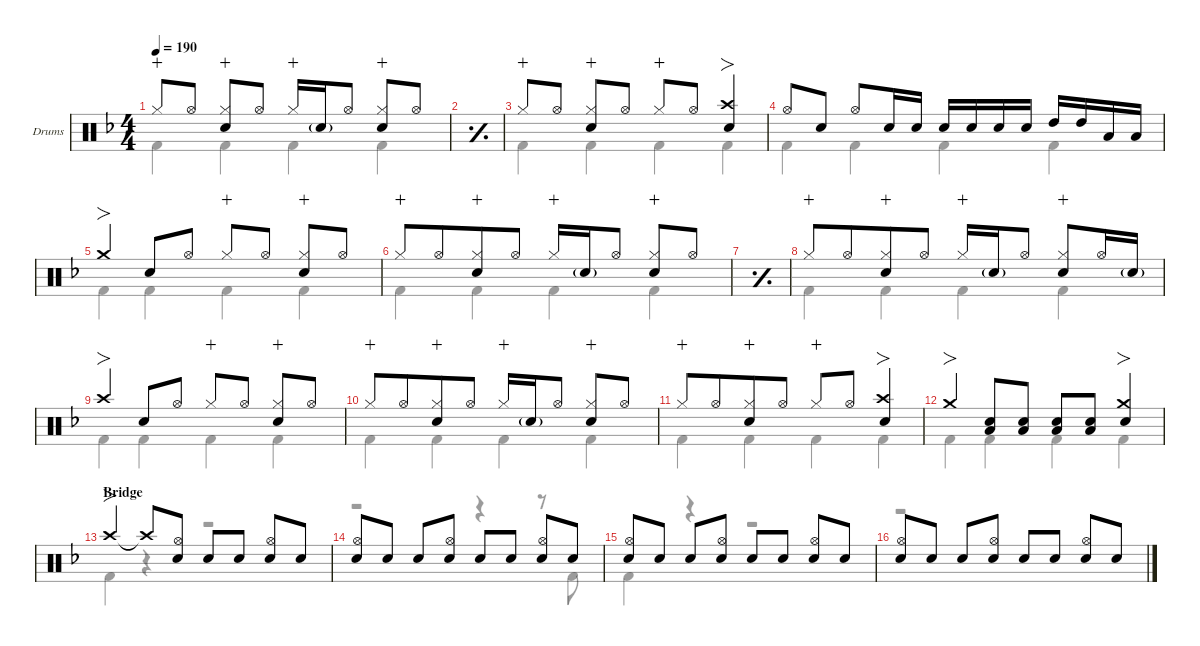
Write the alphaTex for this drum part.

\defaultSystemsLayout 4
\hideDynamics
\bracketExtendMode nobrackets
\firstSystemTrackNameOrientation horizontal
\track ("Drums" "Drums") {defaultSystemsLayout 4 instrument percussion}
\staff {score}
\articulation defaults
\voice
\ts (4 4)
\tempo 190
\clef neutral
\scale
0.266618
\ks dminor "Hi-Hat (closed)"{acc forcenatural}.8{dy mp wahc beam Up} "Hi-Hat (open)"{acc forcenatural}.8{dy f beam Up}
("Hi-Hat (closed)"{acc forcenatural} "Snare (hit) 2"{acc forcenatural}).8{wahc beam Up} "Hi-Hat (open)"{acc forcenatural}.8{beam Up} "Hi-Hat (closed)"{acc forcenatural}.16{dy mp wahc beam Up} "Snare (hit) 2"{g acc forcenatural}.16{dy mf beam Up} "Hi-Hat (open)"{acc forcenatural}.8{dy f beam Up beam split} ("Hi-Hat (closed)"{acc forcenatural} "Snare (hit) 2"{acc forcenatural}).8{wahc beam Up} "Hi-Hat (open)"{acc forcenatural}.8{beam Up} |
\simile simple
\scale
0.244461 |
\simile none
\scale
0.24446 "Hi-Hat (closed)"{acc forcenatural}.8{dy mp wahc beam Up} "Hi-Hat (open)"{acc forcenatural}.8{dy f beam Up} ("Hi-Hat (closed)"{acc forcenatural} "Snare (hit) 2"{acc forcenatural}).8{wahc beam Up} "Hi-Hat (open)"{acc forcenatural}.8{beam Up} "Hi-Hat (closed)"{acc forcenatural}.8{dy mp wahc beam Up} "Hi-Hat (open)"{acc forcenatural}.8{dy f beam Up} ("Crash high (hit)"{acc forcenatural} "Snare (hit) 2"{acc forcenatural}).4{fo beam Up} |
\scale
0.244461 "Hi-Hat (open)"{acc forcenatural}.8{beam Up} "Snare (hit) 2"{acc forcenatural}.8{beam Up beam split} "Hi-Hat (open)"{acc forcenatural}.8{beam Up beam merge} "Snare (hit) 2"{acc forcenatural}.16{dy mf beam Up} "Snare (hit) 2"{acc forcenatural}.16{dy mp beam Up} "Snare (hit) 2"{acc forcenatural}.16{dy f beam Up} "Snare (hit) 2"{acc forcenatural}.16{dy mp beam Up} "Snare (hit) 2"{acc forcenatural}.16{dy mf beam Up} "Snare (hit) 2"{acc forcenatural}.16{dy mp beam Up beam split} "High Tom (hit)"{acc forcenatural}.16{dy f beam Up} "High Tom (hit)"{acc forcenatural}.16{beam Up} "Low Tom (hit)"{acc forcenatural}.16{beam Up} "Low Tom (hit)"{acc forcenatural}.16{beam Up} |
\scale
0.266618 "Crash medium (hit)"{acc forcenatural}.4{fo beam Up} "Snare (hit) 2"{acc forcenatural}.8{beam Up} "Hi-Hat (open)"{acc forcenatural}.8{beam Up} "Hi-Hat (closed)"{acc forcenatural}.8{dy mp wahc beam Up} "Hi-Hat (open)"{acc forcenatural}.8{dy f beam Up} ("Hi-Hat (closed)"{acc forcenatural} "Snare (hit) 2"{acc forcenatural}).8{wahc beam Up} "Hi-Hat (open)"{acc forcenatural}.8{beam Up} |
\scale
0.244461 "Hi-Hat (closed)"{acc forcenatural}.8{dy mp wahc beam Up beam merge} "Hi-Hat (open)"{acc forcenatural}.8{dy f beam Up beam merge} ("Hi-Hat (closed)"{acc forcenatural} "Snare (hit) 2"{acc forcenatural}).8{wahc beam Up beam merge} "Hi-Hat (open)"{acc forcenatural}.8{beam Up} "Hi-Hat (closed)"{acc forcenatural}.16{dy mp wahc beam Up} "Snare (hit) 2"{g acc forcenatural}.16{dy mf beam Up} "Hi-Hat (open)"{acc forcenatural}.8{dy f beam Up beam split} ("Hi-Hat (closed)"{acc forcenatural} "Snare (hit) 2"{acc forcenatural}).8{wahc beam Up} "Hi-Hat (open)"{acc forcenatural}.8{beam Up} |
\simile simple
\scale
0.24446 |
\simile none
\scale
0.244461 "Hi-Hat (closed)"{acc forcenatural}.8{dy mp wahc beam Up beam merge} "Hi-Hat (open)"{acc forcenatural}.8{dy f beam Up beam merge} ("Hi-Hat (closed)"{acc forcenatural} "Snare (hit) 2"{acc forcenatural}).8{wahc beam Up beam merge} "Hi-Hat (open)"{acc forcenatural}.8{beam Up} "Hi-Hat (closed)"{acc forcenatural}.16{dy mp wahc beam Up} "Snare (hit) 2"{g acc forcenatural}.16{dy mf beam Up} "Hi-Hat (open)"{acc forcenatural}.8{dy f beam Up beam split} ("Hi-Hat (closed)"{acc forcenatural} "Snare (hit) 2"{acc forcenatural}).8{wahc beam Up} "Hi-Hat (open)"{acc forcenatural}.16{beam Up} "Snare (hit) 2"{g acc forcenatural}.16{dy mf beam Up} |
\scale
0.266618 "Crash high (hit)"{acc forcenatural}.4{fo dy f beam Up} "Snare (hit) 2"{acc forcenatural}.8{beam Up} "Hi-Hat (open)"{acc forcenatural}.8{beam Up} "Hi-Hat (closed)"{acc forcenatural}.8{dy mp wahc beam Up} "Hi-Hat (open)"{acc forcenatural}.8{dy f beam Up} ("Hi-Hat (closed)"{acc forcenatural} "Snare (hit) 2"{acc forcenatural}).8{wahc beam Up} "Hi-Hat (open)"{acc forcenatural}.8{beam Up} |
\scale
0.24446 "Hi-Hat (closed)"{acc forcenatural}.8{dy mp wahc beam Up beam merge} "Hi-Hat (open)"{acc forcenatural}.8{dy f beam Up beam merge} ("Hi-Hat (closed)"{acc forcenatural} "Snare (hit) 2"{acc forcenatural}).8{wahc beam Up beam merge} "Hi-Hat (open)"{acc forcenatural}.8{beam Up} "Hi-Hat (closed)"{acc forcenatural}.16{dy mp wahc beam Up} "Snare (hit) 2"{g acc forcenatural}.16{dy mf beam Up} "Hi-Hat (open)"{acc forcenatural}.8{dy f beam Up beam split} ("Hi-Hat (closed)"{acc forcenatural} "Snare (hit) 2"{acc forcenatural}).8{wahc beam Up} "Hi-Hat (open)"{acc forcenatural}.8{beam Up} |
\scale
0.24446 "Hi-Hat (closed)"{acc forcenatural}.8{dy mp wahc beam Up beam merge} "Hi-Hat (open)"{acc forcenatural}.8{dy f beam Up beam merge} ("Hi-Hat (closed)"{acc forcenatural} "Snare (hit) 2"{acc forcenatural}).8{wahc beam Up beam merge} "Hi-Hat (open)"{acc forcenatural}.8{beam Up} "Hi-Hat (closed)"{acc forcenatural}.8{dy mp wahc beam Up beam merge} "Hi-Hat (open)"{acc forcenatural}.8{dy f beam Up beam merge} ("Crash high (hit)"{acc forcenatural} "Snare (hit) 2"{acc forcenatural}).4{fo beam Up beam merge} |
\scale
0.244461 "Crash medium (hit)"{acc forcenatural}.4{fo beam Up beam merge} ("Snare (hit) 2"{acc forcenatural} "Low Tom (hit)"{acc forcenatural}).8{beam Up beam merge} ("Snare (hit) 2"{acc forcenatural} "Low Tom (hit)"{acc forcenatural}).8{beam Up} ("Snare (hit) 2"{acc forcenatural} "Low Tom (hit)"{acc forcenatural}).8{beam Up} ("Snare (hit) 2"{acc forcenatural} "Low Tom (hit)"{acc forcenatural}).8{beam Up} ("Snare (hit) 2"{acc forcenatural} "Crash medium (hit)"{acc forcenatural}).4{fo beam Up} |
\section ("" "Bridge")
\scale
0.266618 "Crash high (hit)"{acc forcenatural}.4{fo beam Up} "Crash high (hit)"{t acc forcenatural}.8{beam Up} ("Hi-Hat (open)"{acc forcenatural} "Snare (hit) 2"{acc forcenatural}).8{beam Up} "Snare (hit) 2"{acc forcenatural}.8{dy mf beam Up} "Snare (hit) 2"{acc forcenatural}.8{beam Up} ("Snare (hit) 2"{acc forcenatural} "Hi-Hat (open)"{acc forcenatural}).8{dy f beam Up} "Snare (hit) 2"{acc forcenatural}.8{dy mf beam Up} |
\scale
0.24446 ("Snare (hit) 2"{acc forcenatural} "Hi-Hat (open)"{acc forcenatural}).8{dy f beam Up} "Snare (hit) 2"{acc forcenatural}.8{dy mf beam Up} "Snare (hit) 2"{acc forcenatural}.8{beam Up} ("Hi-Hat (open)"{acc forcenatural} "Snare (hit) 2"{acc forcenatural}).8{dy f beam Up} "Snare (hit) 2"{acc forcenatural}.8{dy mf beam Up} "Snare (hit) 2"{acc forcenatural}.8{beam Up} ("Hi-Hat (open)"{acc forcenatural} "Snare (hit) 2"{acc forcenatural}).8{dy f beam Up} "Snare (hit) 2"{acc forcenatural}.8{dy mf beam Up} |
\scale
0.24446 ("Snare (hit) 2"{acc forcenatural} "Hi-Hat (open)"{acc forcenatural}).8{dy f beam Up} "Snare (hit) 2"{acc forcenatural}.8{dy mf beam Up} "Snare (hit) 2"{acc forcenatural}.8{beam Up} ("Hi-Hat (open)"{acc forcenatural} "Snare (hit) 2"{acc forcenatural}).8{dy f beam Up} "Snare (hit) 2"{acc forcenatural}.8{dy mf beam Up} "Snare (hit) 2"{acc forcenatural}.8{beam Up} ("Hi-Hat (open)"{acc forcenatural} "Snare (hit) 2"{acc forcenatural}).8{dy f beam Up} "Snare (hit) 2"{acc forcenatural}.8{dy mf beam Up} |
\scale
0.244461 ("Snare (hit) 2"{acc forcenatural} "Hi-Hat (open)"{acc forcenatural}).8{dy f beam Up} "Snare (hit) 2"{acc forcenatural}.8{dy mf beam Up} "Snare (hit) 2"{acc forcenatural}.8{beam Up} ("Hi-Hat (open)"{acc forcenatural} "Snare (hit) 2"{acc forcenatural}).8{dy f beam Up} "Snare (hit) 2"{acc forcenatural}.8{dy mf beam Up} "Snare (hit) 2"{acc forcenatural}.8{beam Up} ("Hi-Hat (open)"{acc forcenatural} "Snare (hit) 2"{acc forcenatural}).8{dy f beam Up} "Snare (hit) 2"{acc forcenatural}.8{dy mf beam Up}
\voice
\clef neutral
\ottava regular
\simile none
\scale
0.266618
\ks dminor "Kick (hit) 2"{acc forcenatural}.4{dy f beam Down} "Kick (hit) 2"{acc forcenatural}.4{beam Down} "Kick (hit) 2"{acc forcenatural}.4{beam Down} "Kick (hit) 2"{acc forcenatural}.4{beam Down}
|
\simile simple
\scale
0.244461 |
\simile none
\scale
0.24446 "Kick (hit) 2"{acc forcenatural}.4{beam Down} "Kick (hit) 2"{acc forcenatural}.4{beam Down} "Kick (hit) 2"{acc forcenatural}.4{beam Down} "Kick (hit) 2"{acc forcenatural}.4{beam Down} |
\scale
0.244461 "Kick (hit) 2"{acc forcenatural}.4{beam Down} "Kick (hit) 2"{acc forcenatural}.4{beam Down} "Kick (hit) 2"{acc forcenatural}.4{beam Down} "Kick (hit) 2"{acc forcenatural}.4{beam Down} |
\scale
0.266618 "Kick (hit) 2"{acc forcenatural}.4{beam Down} "Kick (hit) 2"{acc forcenatural}.4{beam Down} "Kick (hit) 2"{acc forcenatural}.4{beam Down} "Kick (hit) 2"{acc forcenatural}.4{beam Down} |
\scale
0.244461 "Kick (hit) 2"{acc forcenatural}.4{beam Down} "Kick (hit) 2"{acc forcenatural}.4{beam Down} "Kick (hit) 2"{acc forcenatural}.4{beam Down} "Kick (hit) 2"{acc forcenatural}.4{beam Down} |
\simile simple
\scale
0.24446 |
\simile none
\scale
0.244461 "Kick (hit) 2"{acc forcenatural}.4{beam Down} "Kick (hit) 2"{acc forcenatural}.4{beam Down} "Kick (hit) 2"{acc forcenatural}.4{beam Down} "Kick (hit) 2"{acc forcenatural}.4{beam Down} |
\scale
0.266618 "Kick (hit) 2"{acc forcenatural}.4{beam Down} "Kick (hit) 2"{acc forcenatural}.4{beam Down} "Kick (hit) 2"{acc forcenatural}.4{beam Down} "Kick (hit) 2"{acc forcenatural}.4{beam Down} |
\scale
0.24446 "Kick (hit) 2"{acc forcenatural}.4{beam Down} "Kick (hit) 2"{acc forcenatural}.4{beam Down} "Kick (hit) 2"{acc forcenatural}.4{beam Down} "Kick (hit) 2"{acc forcenatural}.4{beam Down} |
\scale
0.24446 "Kick (hit) 2"{acc forcenatural}.4{beam Down} "Kick (hit) 2"{acc forcenatural}.4{beam Down} "Kick (hit) 2"{acc forcenatural}.4{beam Down} "Kick (hit) 2"{acc forcenatural}.4{beam Down} |
\scale
0.244461 "Kick (hit) 2"{acc forcenatural}.4{beam Down} "Kick (hit) 2"{acc forcenatural}.4{beam Down} "Kick (hit) 2"{acc forcenatural}.4{beam Down} "Kick (hit) 2"{acc forcenatural}.4{beam Down} |
\scale
0.266618 "Kick (hit) 2"{acc forcenatural}.4{beam Down} r.4{beam Down} r.2{beam Down} |
\scale
0.24446 r.2{beam Down} r.4{beam Down} r.8{beam Down} "Kick (hit) 2"{acc forcenatural}.8{beam Down} |
\scale
0.24446 "Kick (hit) 2"{acc forcenatural}.4{beam Down} r.4{beam Down} r.2{beam Down} |
\scale
0.244461 r.1{beam Down}
